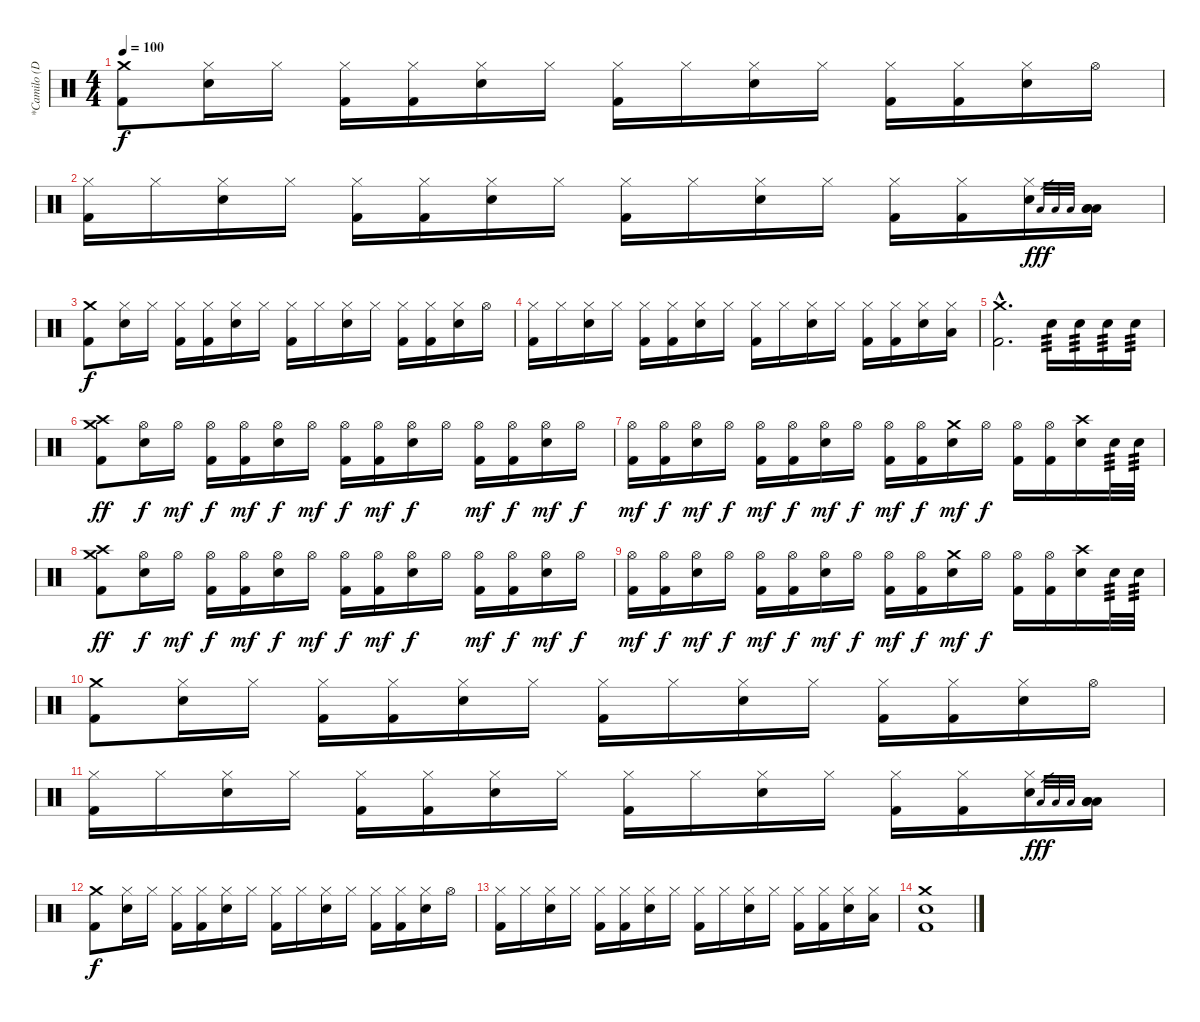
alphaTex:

\track ("*Camilo (Drums)" "*Camilo (D") {instrument percussion}
\staff {score}
\articulation defaults
\ts (4 4)
\tempo 100
\clef neutral
\ks c
("Crash medium (hit)" "Kick (hit) 2").8{dy f} ("Hi-Hat (closed)" "Electric Snare (hit)").16 "Hi-Hat (closed)".16 ("Hi-Hat (closed)" "Kick (hit) 2").16 ("Hi-Hat (closed)" "Kick (hit) 2").16 ("Hi-Hat (closed)" "Electric Snare (hit)").16 "Hi-Hat (closed)".16 ("Hi-Hat (closed)" "Kick (hit) 2").16 "Hi-Hat (closed)".16 ("Hi-Hat (closed)" "Electric Snare (hit)").16 "Hi-Hat (closed)".16 ("Hi-Hat (closed)" "Kick (hit) 2").16 ("Hi-Hat (closed)" "Kick (hit) 2").16 ("Hi-Hat (closed)" "Electric Snare (hit)").16 "Hi-Hat (open)".16 |
("Hi-Hat (closed)" "Kick (hit) 2").16 "Hi-Hat (closed)".16 ("Hi-Hat (closed)" "Electric Snare (hit)").16 "Hi-Hat (closed)".16 ("Hi-Hat (closed)" "Kick (hit) 2").16 ("Hi-Hat (closed)" "Kick (hit) 2").16 ("Hi-Hat (closed)" "Electric Snare (hit)").16 "Hi-Hat (closed)".16 ("Hi-Hat (closed)" "Kick (hit) 2").16 "Hi-Hat (closed)".16 ("Hi-Hat (closed)" "Electric Snare (hit)").16 "Hi-Hat (closed)".16 ("Hi-Hat (closed)" "Kick (hit) 2").16 ("Hi-Hat (closed)" "Kick (hit) 2").16 ("Hi-Hat (closed)" "Electric Snare (hit)").16 "Low Tom (hit)".32{gr dy fff} "Low Tom (hit)".32{gr} "Low Tom (hit)".32{gr} ("Low Tom (hit)" "Low Tom (hit)" "Low Tom (hit)").16 |
("Crash medium (hit)" "Kick (hit) 2").8{dy f} ("Hi-Hat (closed)" "Electric Snare (hit)").16 "Hi-Hat (closed)".16 ("Hi-Hat (closed)" "Kick (hit) 2").16 ("Hi-Hat (closed)" "Kick (hit) 2").16 ("Hi-Hat (closed)" "Electric Snare (hit)").16 "Hi-Hat (closed)".16 ("Hi-Hat (closed)" "Kick (hit) 2").16 "Hi-Hat (closed)".16 ("Hi-Hat (closed)" "Electric Snare (hit)").16 "Hi-Hat (closed)".16 ("Hi-Hat (closed)" "Kick (hit) 2").16 ("Hi-Hat (closed)" "Kick (hit) 2").16 ("Hi-Hat (closed)" "Electric Snare (hit)").16 "Hi-Hat (open)".16 |
("Hi-Hat (closed)" "Kick (hit) 2").16 "Hi-Hat (closed)".16 ("Hi-Hat (closed)" "Electric Snare (hit)").16 "Hi-Hat (closed)".16 ("Hi-Hat (closed)" "Kick (hit) 2").16 ("Hi-Hat (closed)" "Kick (hit) 2").16 ("Hi-Hat (closed)" "Electric Snare (hit)").16 "Hi-Hat (closed)".16 ("Hi-Hat (closed)" "Kick (hit) 2").16 "Hi-Hat (closed)".16 ("Hi-Hat (closed)" "Electric Snare (hit)").16 "Hi-Hat (closed)".16 ("Hi-Hat (closed)" "Kick (hit) 2").16 ("Hi-Hat (closed)" "Kick (hit) 2").16 ("Hi-Hat (closed)" "Electric Snare (hit)").16 ("Hi-Hat (closed)" "Low Tom (hit)").16 |
("Crash medium (hit)"{hac} "Kick (hit) 2"{hac}).2{d} "Electric Snare (hit)".16{tp 3} "Electric Snare (hit)".16{tp 3} "Electric Snare (hit)".16{tp 3} "Electric Snare (hit)".16{tp 3} |
("Crash high (hit)" "Crash medium (hit)" "Kick (hit) 2").8{dy ff} ("Hi-Hat (open)" "Electric Snare (hit)").16{dy f} "Hi-Hat (open)".16{dy mf} ("Hi-Hat (open)" "Kick (hit) 2").16{dy f} ("Hi-Hat (open)" "Kick (hit) 2").16{dy mf} ("Hi-Hat (open)" "Electric Snare (hit)").16{dy f} "Hi-Hat (open)".16{dy mf} ("Hi-Hat (open)" "Kick (hit) 2").16{dy f} ("Hi-Hat (open)" "Kick (hit) 2").16{dy mf} ("Hi-Hat (open)" "Electric Snare (hit)").16{dy f} "Hi-Hat (open)".16 ("Hi-Hat (open)" "Kick (hit) 2").16{dy mf} ("Hi-Hat (open)" "Kick (hit) 2").16{dy f} ("Hi-Hat (open)" "Electric Snare (hit)").16{dy mf} "Hi-Hat (open)".16{dy f} |
("Hi-Hat (open)" "Kick (hit) 2").16{dy mf} ("Hi-Hat (open)" "Kick (hit) 2").16{dy f} ("Hi-Hat (open)" "Electric Snare (hit)").16{dy mf} "Hi-Hat (open)".16{dy f} ("Hi-Hat (open)" "Kick (hit) 2").16{dy mf} ("Hi-Hat (open)" "Kick (hit) 2").16{dy f} ("Hi-Hat (open)" "Electric Snare (hit)").16{dy mf} "Hi-Hat (open)".16{dy f} ("Hi-Hat (open)" "Kick (hit) 2").16{dy mf} ("Hi-Hat (open)" "Kick (hit) 2").16{dy f} ("Crash medium (hit)" "Electric Snare (hit)").16{dy mf} "Hi-Hat (open)".16{dy f} ("Hi-Hat (open)" "Kick (hit) 2").16 ("Hi-Hat (open)" "Kick (hit) 2").16 ("Crash high (hit)" "Electric Snare (hit)").16 "Electric Snare (hit)".32{tp 3} "Electric Snare (hit)".32{tp 3} |
("Crash high (hit)" "Crash medium (hit)" "Kick (hit) 2").8{dy ff} ("Hi-Hat (open)" "Electric Snare (hit)").16{dy f} "Hi-Hat (open)".16{dy mf} ("Hi-Hat (open)" "Kick (hit) 2").16{dy f} ("Hi-Hat (open)" "Kick (hit) 2").16{dy mf} ("Hi-Hat (open)" "Electric Snare (hit)").16{dy f} "Hi-Hat (open)".16{dy mf} ("Hi-Hat (open)" "Kick (hit) 2").16{dy f} ("Hi-Hat (open)" "Kick (hit) 2").16{dy mf} ("Hi-Hat (open)" "Electric Snare (hit)").16{dy f} "Hi-Hat (open)".16 ("Hi-Hat (open)" "Kick (hit) 2").16{dy mf} ("Hi-Hat (open)" "Kick (hit) 2").16{dy f} ("Hi-Hat (open)" "Electric Snare (hit)").16{dy mf} "Hi-Hat (open)".16{dy f} |
("Hi-Hat (open)" "Kick (hit) 2").16{dy mf} ("Hi-Hat (open)" "Kick (hit) 2").16{dy f} ("Hi-Hat (open)" "Electric Snare (hit)").16{dy mf} "Hi-Hat (open)".16{dy f} ("Hi-Hat (open)" "Kick (hit) 2").16{dy mf} ("Hi-Hat (open)" "Kick (hit) 2").16{dy f} ("Hi-Hat (open)" "Electric Snare (hit)").16{dy mf} "Hi-Hat (open)".16{dy f} ("Hi-Hat (open)" "Kick (hit) 2").16{dy mf} ("Hi-Hat (open)" "Kick (hit) 2").16{dy f} ("Crash medium (hit)" "Electric Snare (hit)").16{dy mf} "Hi-Hat (open)".16{dy f} ("Hi-Hat (open)" "Kick (hit) 2").16 ("Hi-Hat (open)" "Kick (hit) 2").16 ("Crash high (hit)" "Electric Snare (hit)").16 "Electric Snare (hit)".32{tp 3} "Electric Snare (hit)".32{tp 3} |
("Crash medium (hit)" "Kick (hit) 2").8 ("Hi-Hat (closed)" "Electric Snare (hit)").16 "Hi-Hat (closed)".16 ("Hi-Hat (closed)" "Kick (hit) 2").16 ("Hi-Hat (closed)" "Kick (hit) 2").16 ("Hi-Hat (closed)" "Electric Snare (hit)").16 "Hi-Hat (closed)".16 ("Hi-Hat (closed)" "Kick (hit) 2").16 "Hi-Hat (closed)".16 ("Hi-Hat (closed)" "Electric Snare (hit)").16 "Hi-Hat (closed)".16 ("Hi-Hat (closed)" "Kick (hit) 2").16 ("Hi-Hat (closed)" "Kick (hit) 2").16 ("Hi-Hat (closed)" "Electric Snare (hit)").16 "Hi-Hat (open)".16 |
("Hi-Hat (closed)" "Kick (hit) 2").16 "Hi-Hat (closed)".16 ("Hi-Hat (closed)" "Electric Snare (hit)").16 "Hi-Hat (closed)".16 ("Hi-Hat (closed)" "Kick (hit) 2").16 ("Hi-Hat (closed)" "Kick (hit) 2").16 ("Hi-Hat (closed)" "Electric Snare (hit)").16 "Hi-Hat (closed)".16 ("Hi-Hat (closed)" "Kick (hit) 2").16 "Hi-Hat (closed)".16 ("Hi-Hat (closed)" "Electric Snare (hit)").16 "Hi-Hat (closed)".16 ("Hi-Hat (closed)" "Kick (hit) 2").16 ("Hi-Hat (closed)" "Kick (hit) 2").16 ("Hi-Hat (closed)" "Electric Snare (hit)").16 "Low Tom (hit)".32{gr dy fff} "Low Tom (hit)".32{gr} "Low Tom (hit)".32{gr} ("Low Tom (hit)" "Low Tom (hit)" "Low Tom (hit)").16 |
("Crash medium (hit)" "Kick (hit) 2").8{dy f} ("Hi-Hat (closed)" "Electric Snare (hit)").16 "Hi-Hat (closed)".16 ("Hi-Hat (closed)" "Kick (hit) 2").16 ("Hi-Hat (closed)" "Kick (hit) 2").16 ("Hi-Hat (closed)" "Electric Snare (hit)").16 "Hi-Hat (closed)".16 ("Hi-Hat (closed)" "Kick (hit) 2").16 "Hi-Hat (closed)".16 ("Hi-Hat (closed)" "Electric Snare (hit)").16 "Hi-Hat (closed)".16 ("Hi-Hat (closed)" "Kick (hit) 2").16 ("Hi-Hat (closed)" "Kick (hit) 2").16 ("Hi-Hat (closed)" "Electric Snare (hit)").16 "Hi-Hat (open)".16 |
("Hi-Hat (closed)" "Kick (hit) 2").16 "Hi-Hat (closed)".16 ("Hi-Hat (closed)" "Electric Snare (hit)").16 "Hi-Hat (closed)".16 ("Hi-Hat (closed)" "Kick (hit) 2").16 ("Hi-Hat (closed)" "Kick (hit) 2").16 ("Hi-Hat (closed)" "Electric Snare (hit)").16 "Hi-Hat (closed)".16 ("Hi-Hat (closed)" "Kick (hit) 2").16 "Hi-Hat (closed)".16 ("Hi-Hat (closed)" "Electric Snare (hit)").16 "Hi-Hat (closed)".16 ("Hi-Hat (closed)" "Kick (hit) 2").16 ("Hi-Hat (closed)" "Kick (hit) 2").16 ("Hi-Hat (closed)" "Electric Snare (hit)").16 ("Hi-Hat (closed)" "Low Tom (hit)").16 |
("Crash medium (hit)" "Electric Snare (hit)" "Kick (hit) 2").1
